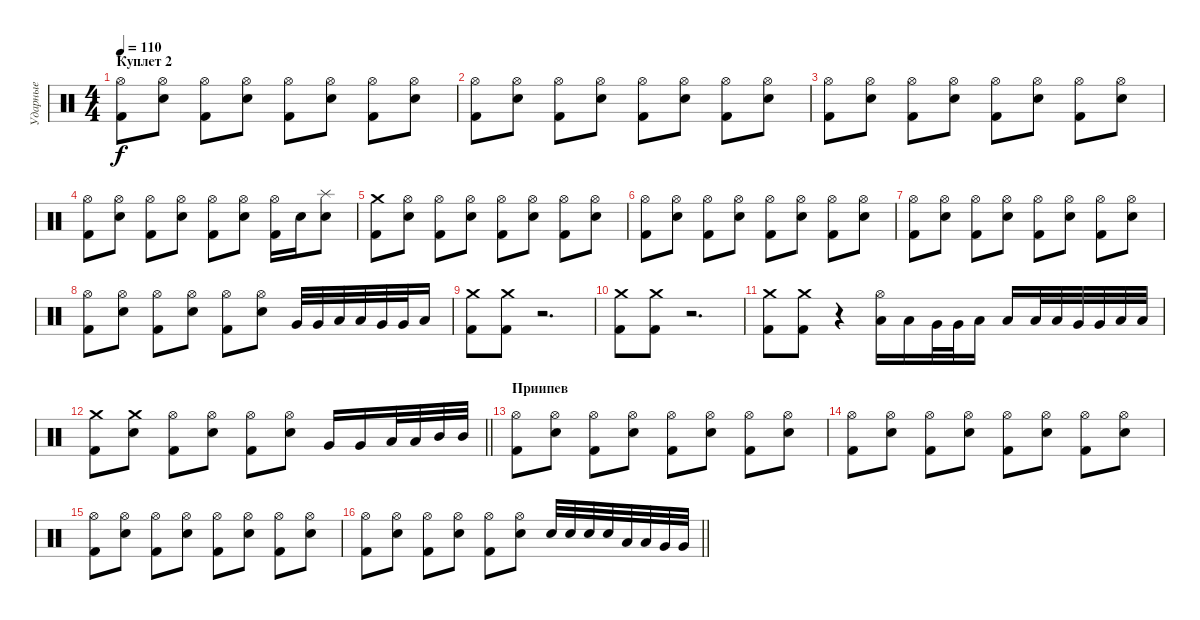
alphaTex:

\track ("Ударные" "Ударные") {instrument percussion}
\staff {score}
\articulation defaults
\ts (4 4)
\section ("" "Куплет 2")
\tempo 110
\clef neutral
\ks c
("Hi-Hat (open)" "Kick (hit) 2").8{dy f} ("Hi-Hat (open)" "Snare (hit) 2").8 ("Hi-Hat (open)" "Kick (hit) 2").8 ("Hi-Hat (open)" "Snare (hit) 2").8 ("Hi-Hat (open)" "Kick (hit) 2").8 ("Hi-Hat (open)" "Snare (hit) 2").8 ("Hi-Hat (open)" "Kick (hit) 2").8 ("Hi-Hat (open)" "Snare (hit) 2").8 |
("Hi-Hat (open)" "Kick (hit) 2").8 ("Hi-Hat (open)" "Snare (hit) 2").8 ("Hi-Hat (open)" "Kick (hit) 2").8 ("Hi-Hat (open)" "Snare (hit) 2").8 ("Hi-Hat (open)" "Kick (hit) 2").8 ("Hi-Hat (open)" "Snare (hit) 2").8 ("Hi-Hat (open)" "Kick (hit) 2").8 ("Hi-Hat (open)" "Snare (hit) 2").8 |
("Hi-Hat (open)" "Kick (hit) 2").8 ("Hi-Hat (open)" "Snare (hit) 2").8 ("Hi-Hat (open)" "Kick (hit) 2").8 ("Hi-Hat (open)" "Snare (hit) 2").8 ("Hi-Hat (open)" "Kick (hit) 2").8 ("Hi-Hat (open)" "Snare (hit) 2").8 ("Hi-Hat (open)" "Kick (hit) 2").8 ("Hi-Hat (open)" "Snare (hit) 2").8 |
("Hi-Hat (open)" "Kick (hit) 2").8 ("Hi-Hat (open)" "Snare (hit) 2").8 ("Hi-Hat (open)" "Kick (hit) 2").8 ("Hi-Hat (open)" "Snare (hit) 2").8 ("Hi-Hat (open)" "Kick (hit) 2").8 ("Hi-Hat (open)" "Snare (hit) 2").8 ("Hi-Hat (open)" "Kick (hit) 2").16 "Snare (hit) 2".16 ("Splash (hit)" "Snare (hit) 2").8 |
("Crash medium (hit)" "Kick (hit) 2").8 ("Hi-Hat (open)" "Snare (hit) 2").8 ("Hi-Hat (open)" "Kick (hit) 2").8 ("Hi-Hat (open)" "Snare (hit) 2").8 ("Hi-Hat (open)" "Kick (hit) 2").8 ("Hi-Hat (open)" "Snare (hit) 2").8 ("Hi-Hat (open)" "Kick (hit) 2").8 ("Hi-Hat (open)" "Snare (hit) 2").8 |
("Hi-Hat (open)" "Kick (hit) 2").8 ("Hi-Hat (open)" "Snare (hit) 2").8 ("Hi-Hat (open)" "Kick (hit) 2").8 ("Hi-Hat (open)" "Snare (hit) 2").8 ("Hi-Hat (open)" "Kick (hit) 2").8 ("Hi-Hat (open)" "Snare (hit) 2").8 ("Hi-Hat (open)" "Kick (hit) 2").8 ("Hi-Hat (open)" "Snare (hit) 2").8 |
("Hi-Hat (open)" "Kick (hit) 2").8 ("Hi-Hat (open)" "Snare (hit) 2").8 ("Hi-Hat (open)" "Kick (hit) 2").8 ("Hi-Hat (open)" "Snare (hit) 2").8 ("Hi-Hat (open)" "Kick (hit) 2").8 ("Hi-Hat (open)" "Snare (hit) 2").8 ("Hi-Hat (open)" "Kick (hit) 2").8 ("Hi-Hat (open)" "Snare (hit) 2").8 |
("Hi-Hat (open)" "Kick (hit) 2").8 ("Hi-Hat (open)" "Snare (hit) 2").8 ("Hi-Hat (open)" "Kick (hit) 2").8 ("Hi-Hat (open)" "Snare (hit) 2").8 ("Hi-Hat (open)" "Kick (hit) 2").8 ("Hi-Hat (open)" "Snare (hit) 2").8 "Very Low Tom (hit)".32 "Very Low Tom (hit)".32 "Low Tom (hit)".32 "Low Tom (hit)".32 "Very Low Tom (hit)".32 "Very Low Tom (hit)".32 "Low Floor Tom (hit)".16 |
("Crash medium (hit)" "Kick (hit) 2").8 ("Crash medium (hit)" "Kick (hit) 2").8 r.2{d} |
("Crash medium (hit)" "Kick (hit) 2").8 ("Crash medium (hit)" "Kick (hit) 2").8 r.2{d} |
("Crash medium (hit)" "Kick (hit) 2").8 ("Crash medium (hit)" "Kick (hit) 2").8 r.4 ("Hi-Hat (open)" "Low Tom (hit)").16 "Low Tom (hit)".16 "Very Low Tom (hit)".32 "Very Low Tom (hit)".32 "Low Tom (hit)".16 "Low Tom (hit)".16 "Low Tom (hit)".32 "Low Tom (hit)".32 "Very Low Tom (hit)".32 "Very Low Tom (hit)".32 "Low Tom (hit)".32 "Low Tom (hit)".32 |
\barLineRight lightlight
("Crash medium (hit)" "Kick (hit) 2").8 ("Crash medium (hit)" "Snare (hit) 2").8 ("Hi-Hat (open)" "Kick (hit) 2").8 ("Hi-Hat (open)" "Snare (hit) 2").8 ("Hi-Hat (open)" "Kick (hit) 2").8 ("Hi-Hat (open)" "Snare (hit) 2").8 "Very Low Tom (hit)".16 "Very Low Tom (hit)".16 "Low Tom (hit)".32 "Low Tom (hit)".32 "Mid Tom (hit)".32 "Mid Tom (hit)".32 |
\section ("" "Приипев")
("Hi-Hat (open)" "Kick (hit) 2").8 ("Hi-Hat (open)" "Snare (hit) 2").8 ("Hi-Hat (open)" "Kick (hit) 2").8 ("Hi-Hat (open)" "Snare (hit) 2").8 ("Hi-Hat (open)" "Kick (hit) 2").8 ("Hi-Hat (open)" "Snare (hit) 2").8 ("Hi-Hat (open)" "Kick (hit) 2").8 ("Hi-Hat (open)" "Snare (hit) 2").8 |
("Hi-Hat (open)" "Kick (hit) 2").8 ("Hi-Hat (open)" "Snare (hit) 2").8 ("Hi-Hat (open)" "Kick (hit) 2").8 ("Hi-Hat (open)" "Snare (hit) 2").8 ("Hi-Hat (open)" "Kick (hit) 2").8 ("Hi-Hat (open)" "Snare (hit) 2").8 ("Hi-Hat (open)" "Kick (hit) 2").8 ("Hi-Hat (open)" "Snare (hit) 2").8 |
("Hi-Hat (open)" "Kick (hit) 2").8 ("Hi-Hat (open)" "Snare (hit) 2").8 ("Hi-Hat (open)" "Kick (hit) 2").8 ("Hi-Hat (open)" "Snare (hit) 2").8 ("Hi-Hat (open)" "Kick (hit) 2").8 ("Hi-Hat (open)" "Snare (hit) 2").8 ("Hi-Hat (open)" "Kick (hit) 2").8 ("Hi-Hat (open)" "Snare (hit) 2").8 |
\barLineRight lightlight
("Hi-Hat (open)" "Kick (hit) 2").8 ("Hi-Hat (open)" "Snare (hit) 2").8 ("Hi-Hat (open)" "Kick (hit) 2").8 ("Hi-Hat (open)" "Snare (hit) 2").8 ("Hi-Hat (open)" "Kick (hit) 2").8 ("Hi-Hat (open)" "Snare (hit) 2").8 "Snare (hit) 2".32 "Snare (hit) 2".32 "Snare (hit) 2".32 "Snare (hit) 2".32 "Low Tom (hit)".32 "Low Tom (hit)".32 "Very Low Tom (hit)".32 "Very Low Tom (hit)".32
